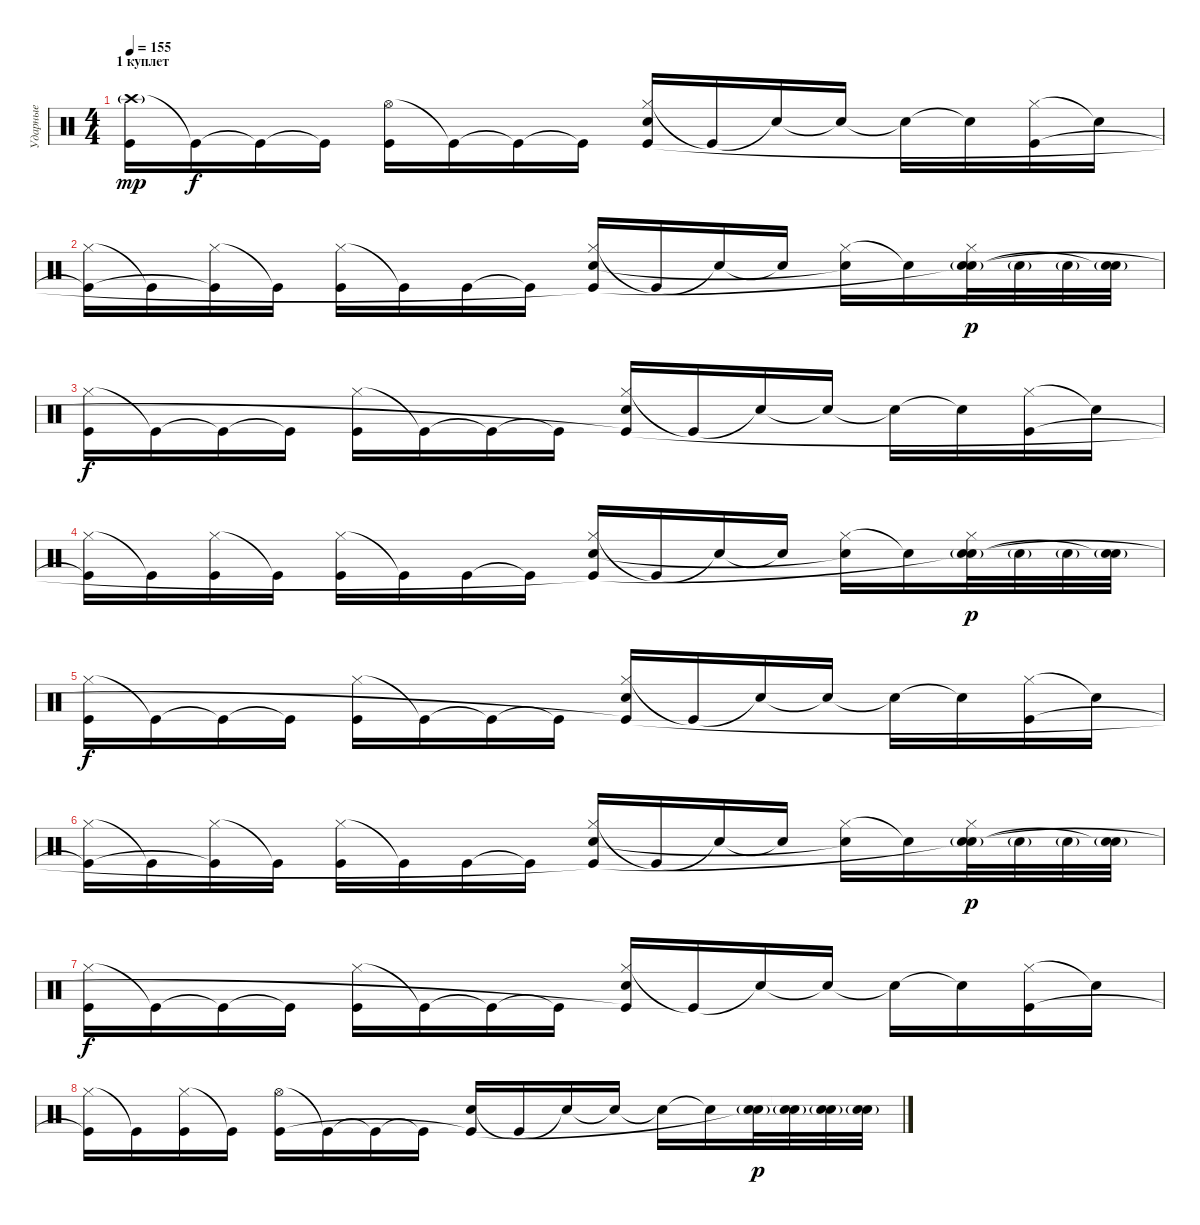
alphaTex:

\track ("Ударные" "Ударные") {instrument percussion}
\staff {score}
\articulation defaults
\ts (4 4)
\section ("" "1 куплет")
\tempo 155
\clef neutral
\ks c
("Crash high (hit)"{g} "Kick (hit)").16{dy mp} "Kick (hit)"{t}.16{dy f} "Kick (hit)"{t}.16 "Kick (hit)"{t}.16 ("Hi-Hat (open)" "Kick (hit)").16 "Kick (hit)"{t}.16 "Kick (hit)"{t}.16 "Kick (hit)"{t}.16 ("Hi-Hat (closed)" "Electric Snare (hit)" "Kick (hit)"{t}).16 "Kick (hit)"{t}.16 "Snare (hit)"{t}.16 "Snare (hit)"{t}.16 "Snare (hit)"{t}.16 "Snare (hit)"{t}.16 ("Hi-Hat (closed)" "Kick (hit)").16 "Snare (hit)"{t}.16 |
("Hi-Hat (closed)" "Kick (hit)"{t}).16 "Kick (hit)"{t}.16 ("Hi-Hat (closed)" "Kick (hit)"{t}).16 "Kick (hit)"{t}.16 ("Hi-Hat (closed)" "Kick (hit)").16 "Kick (hit)"{t}.16 "Kick (hit)".16 "Kick (hit)"{t}.16 ("Hi-Hat (closed)" "Electric Snare (hit)" "Kick (hit)"{t}).16 "Kick (hit)"{t}.16 "Snare (hit)"{t}.16 "Snare (hit)"{t}.16 ("Hi-Hat (closed)" "Snare (hit)"{t}).16 "Snare (hit)"{t}.16 ("Hi-Hat (closed)" "Electric Snare (hit)"{g} "Snare (hit)"{t}).32{dy p} "Electric Snare (hit)"{g}.32 "Electric Snare (hit)"{g}.32 ("Electric Snare (hit)"{g} "Snare (hit)"{t}).32 |
("Hi-Hat (closed)" "Kick (hit)").16{dy f} "Kick (hit)"{t}.16 "Kick (hit)"{t}.16 "Kick (hit)"{t}.16 ("Hi-Hat (closed)" "Kick (hit)").16 "Kick (hit)"{t}.16 "Kick (hit)"{t}.16 "Kick (hit)"{t}.16 ("Hi-Hat (closed)" "Electric Snare (hit)" "Kick (hit)"{t}).16 "Kick (hit)"{t}.16 "Snare (hit)"{t}.16 "Snare (hit)"{t}.16 "Snare (hit)"{t}.16 "Snare (hit)"{t}.16 ("Hi-Hat (closed)" "Kick (hit)").16 "Snare (hit)"{t}.16 |
("Hi-Hat (closed)" "Kick (hit)"{t}).16 "Kick (hit)"{t}.16 ("Hi-Hat (closed)" "Kick (hit)").16 "Kick (hit)"{t}.16 ("Hi-Hat (closed)" "Kick (hit)").16 "Kick (hit)"{t}.16 "Kick (hit)".16 "Kick (hit)"{t}.16 ("Hi-Hat (closed)" "Electric Snare (hit)" "Kick (hit)"{t}).16 "Kick (hit)"{t}.16 "Snare (hit)"{t}.16 "Snare (hit)"{t}.16 ("Hi-Hat (closed)" "Snare (hit)"{t}).16 "Snare (hit)"{t}.16 ("Hi-Hat (closed)" "Electric Snare (hit)"{g} "Snare (hit)"{t}).32{dy p} "Electric Snare (hit)"{g}.32 "Electric Snare (hit)"{g}.32 ("Electric Snare (hit)"{g} "Snare (hit)"{t}).32 |
("Hi-Hat (closed)" "Kick (hit)").16{dy f} "Kick (hit)"{t}.16 "Kick (hit)"{t}.16 "Kick (hit)"{t}.16 ("Hi-Hat (closed)" "Kick (hit)").16 "Kick (hit)"{t}.16 "Kick (hit)"{t}.16 "Kick (hit)"{t}.16 ("Hi-Hat (closed)" "Electric Snare (hit)" "Kick (hit)"{t}).16 "Kick (hit)"{t}.16 "Snare (hit)"{t}.16 "Snare (hit)"{t}.16 "Snare (hit)"{t}.16 "Snare (hit)"{t}.16 ("Hi-Hat (closed)" "Kick (hit)").16 "Snare (hit)"{t}.16 |
("Hi-Hat (closed)" "Kick (hit)"{t}).16 "Kick (hit)"{t}.16 ("Hi-Hat (closed)" "Kick (hit)"{t}).16 "Kick (hit)"{t}.16 ("Hi-Hat (closed)" "Kick (hit)").16 "Kick (hit)"{t}.16 "Kick (hit)".16 "Kick (hit)"{t}.16 ("Hi-Hat (closed)" "Electric Snare (hit)" "Kick (hit)"{t}).16 "Kick (hit)"{t}.16 "Snare (hit)"{t}.16 "Snare (hit)"{t}.16 ("Hi-Hat (closed)" "Snare (hit)"{t}).16 "Snare (hit)"{t}.16 ("Hi-Hat (closed)" "Electric Snare (hit)"{g} "Snare (hit)"{t}).32{dy p} "Electric Snare (hit)"{g}.32 "Electric Snare (hit)"{g}.32 ("Electric Snare (hit)"{g} "Snare (hit)"{t}).32 |
("Hi-Hat (closed)" "Kick (hit)").16{dy f} "Kick (hit)"{t}.16 "Kick (hit)"{t}.16 "Kick (hit)"{t}.16 ("Hi-Hat (closed)" "Kick (hit)").16 "Kick (hit)"{t}.16 "Kick (hit)"{t}.16 "Kick (hit)"{t}.16 ("Hi-Hat (closed)" "Electric Snare (hit)" "Kick (hit)"{t}).16 "Kick (hit)"{t}.16 "Snare (hit)"{t}.16 "Snare (hit)"{t}.16 "Snare (hit)"{t}.16 "Snare (hit)"{t}.16 ("Hi-Hat (closed)" "Kick (hit)").16 "Snare (hit)"{t}.16 |
("Hi-Hat (closed)" "Kick (hit)"{t}).16 "Kick (hit)"{t}.16 ("Hi-Hat (closed)" "Kick (hit)").16 "Kick (hit)"{t}.16 ("Hi-Hat (open)" "Kick (hit)").16 "Kick (hit)"{t}.16 "Kick (hit)"{t}.16 "Kick (hit)"{t}.16 ("Electric Snare (hit)" "Kick (hit)"{t}).16 "Kick (hit)"{t}.16 "Snare (hit)"{t}.16 "Snare (hit)"{t}.16 "Snare (hit)"{t}.16 "Snare (hit)"{t}.16 ("Electric Snare (hit)"{g} "Snare (hit)"{t}).32{dy p} ("Electric Snare (hit)"{g} "Snare (hit)"{t}).32 ("Electric Snare (hit)"{g} "Snare (hit)"{t}).32 ("Electric Snare (hit)"{g} "Snare (hit)"{t}).32
